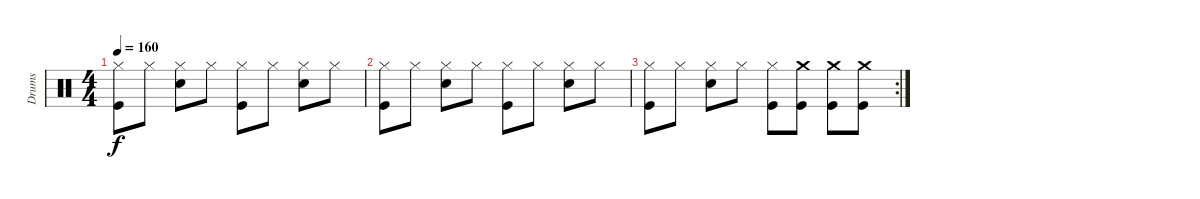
\track ("Drums" "Drums") {instrument percussion}
\staff {score}
\articulation defaults
\ts (4 4)
\tempo 160
\clef neutral
\ks c
("Hi-Hat (closed)" "Kick (hit)").8{dy f} "Hi-Hat (closed)".8 ("Hi-Hat (closed)" "Snare (hit) 2").8 "Hi-Hat (closed)".8 ("Hi-Hat (closed)" "Kick (hit)").8 "Hi-Hat (closed)".8 ("Hi-Hat (closed)" "Snare (hit) 2").8 "Hi-Hat (closed)".8 |
("Hi-Hat (closed)" "Kick (hit)").8 "Hi-Hat (closed)".8 ("Hi-Hat (closed)" "Snare (hit) 2").8 "Hi-Hat (closed)".8 ("Hi-Hat (closed)" "Kick (hit)").8 "Hi-Hat (closed)".8 ("Hi-Hat (closed)" "Snare (hit) 2").8 "Hi-Hat (closed)".8 |
\rc 2
("Hi-Hat (closed)" "Kick (hit)").8 "Hi-Hat (closed)".8 ("Hi-Hat (closed)" "Snare (hit) 2").8 "Hi-Hat (closed)".8 ("Hi-Hat (closed)" "Kick (hit)").8 ("Crash medium (hit)" "Kick (hit)").8 ("Crash medium (hit)" "Kick (hit)").8 ("Crash medium (hit)" "Kick (hit)").8
